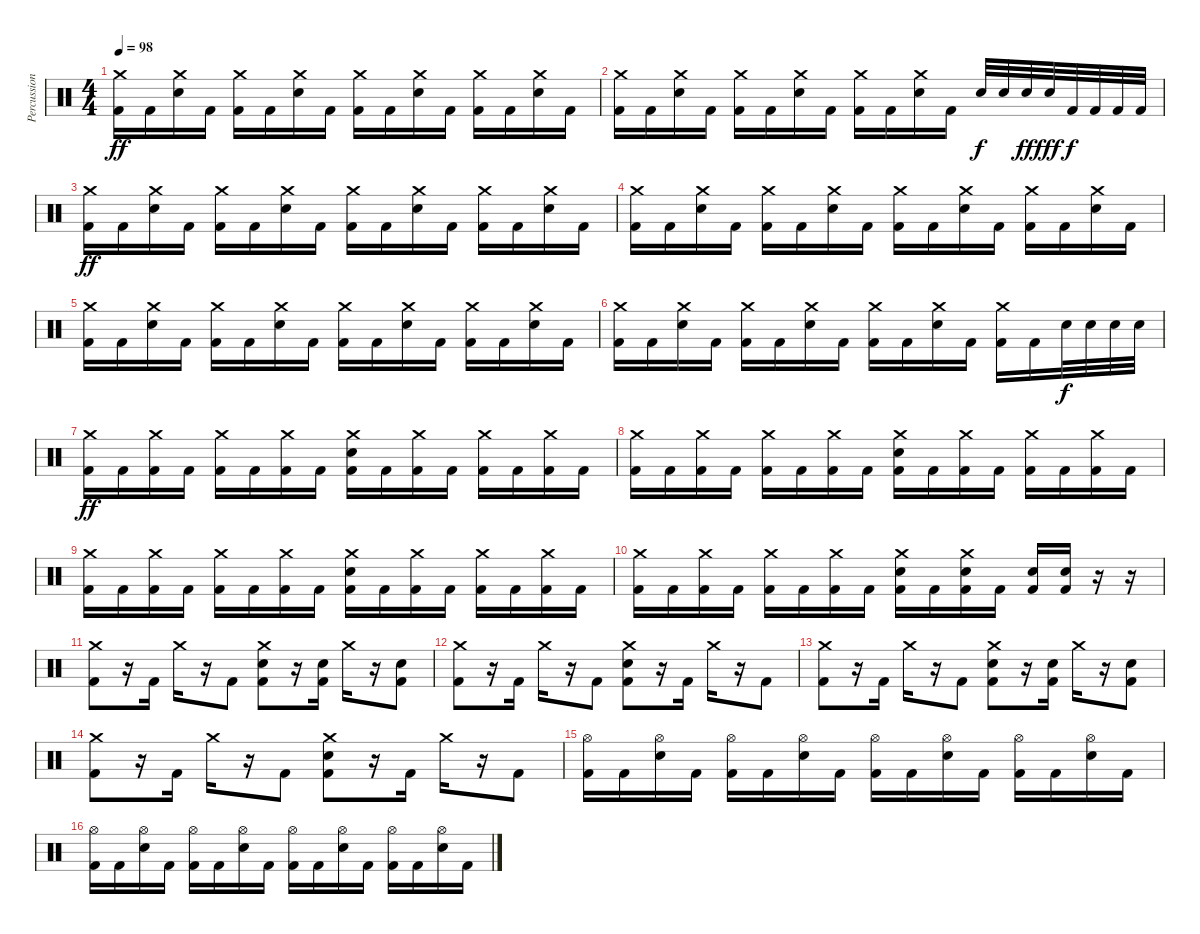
\track ("Percussion" "Percussion") {instrument percussion}
\staff {score}
\articulation defaults
\ts (4 4)
\tempo 98
\clef neutral
\ks c
("Crash medium (hit)" "Kick (hit) 2").16{dy ff} "Kick (hit) 2".16 ("Crash medium (hit)" "Electric Snare (hit)").16 "Kick (hit) 2".16 ("Crash medium (hit)" "Kick (hit) 2").16 "Kick (hit) 2".16 ("Crash medium (hit)" "Electric Snare (hit)").16 "Kick (hit) 2".16 ("Crash medium (hit)" "Kick (hit) 2").16 "Kick (hit) 2".16 ("Crash medium (hit)" "Electric Snare (hit)").16 "Kick (hit) 2".16 ("Crash medium (hit)" "Kick (hit) 2").16 "Kick (hit) 2".16 ("Crash medium (hit)" "Electric Snare (hit)").16 "Kick (hit) 2".16 |
("Crash medium (hit)" "Kick (hit) 2").16 "Kick (hit) 2".16 ("Crash medium (hit)" "Electric Snare (hit)").16 "Kick (hit) 2".16 ("Crash medium (hit)" "Kick (hit) 2").16 "Kick (hit) 2".16 ("Crash medium (hit)" "Electric Snare (hit)").16 "Kick (hit) 2".16 ("Crash medium (hit)" "Kick (hit) 2").16 "Kick (hit) 2".16 ("Crash medium (hit)" "Electric Snare (hit)").16 "Kick (hit) 2".16 "Electric Snare (hit)".32{dy f} "Electric Snare (hit)".32 "Electric Snare (hit)".32{dy ff} "Electric Snare (hit)".32{dy fff} "Kick (hit) 2".32{dy f} "Kick (hit) 2".32 "Kick (hit) 2".32 "Kick (hit) 2".32 |
("Crash medium (hit)" "Kick (hit) 2").16{dy ff} "Kick (hit) 2".16 ("Crash medium (hit)" "Electric Snare (hit)").16 "Kick (hit) 2".16 ("Crash medium (hit)" "Kick (hit) 2").16 "Kick (hit) 2".16 ("Crash medium (hit)" "Electric Snare (hit)").16 "Kick (hit) 2".16 ("Crash medium (hit)" "Kick (hit) 2").16 "Kick (hit) 2".16 ("Crash medium (hit)" "Electric Snare (hit)").16 "Kick (hit) 2".16 ("Crash medium (hit)" "Kick (hit) 2").16 "Kick (hit) 2".16 ("Crash medium (hit)" "Electric Snare (hit)").16 "Kick (hit) 2".16 |
("Crash medium (hit)" "Kick (hit) 2").16 "Kick (hit) 2".16 ("Crash medium (hit)" "Electric Snare (hit)").16 "Kick (hit) 2".16 ("Crash medium (hit)" "Kick (hit) 2").16 "Kick (hit) 2".16 ("Crash medium (hit)" "Electric Snare (hit)").16 "Kick (hit) 2".16 ("Crash medium (hit)" "Kick (hit) 2").16 "Kick (hit) 2".16 ("Crash medium (hit)" "Electric Snare (hit)").16 "Kick (hit) 2".16 ("Crash medium (hit)" "Kick (hit) 2").16 "Kick (hit) 2".16 ("Crash medium (hit)" "Electric Snare (hit)").16 "Kick (hit) 2".16 |
("Crash medium (hit)" "Kick (hit) 2").16 "Kick (hit) 2".16 ("Crash medium (hit)" "Electric Snare (hit)").16 "Kick (hit) 2".16 ("Crash medium (hit)" "Kick (hit) 2").16 "Kick (hit) 2".16 ("Crash medium (hit)" "Electric Snare (hit)").16 "Kick (hit) 2".16 ("Crash medium (hit)" "Kick (hit) 2").16 "Kick (hit) 2".16 ("Crash medium (hit)" "Electric Snare (hit)").16 "Kick (hit) 2".16 ("Crash medium (hit)" "Kick (hit) 2").16 "Kick (hit) 2".16 ("Crash medium (hit)" "Electric Snare (hit)").16 "Kick (hit) 2".16 |
("Crash medium (hit)" "Kick (hit) 2").16 "Kick (hit) 2".16 ("Crash medium (hit)" "Electric Snare (hit)").16 "Kick (hit) 2".16 ("Crash medium (hit)" "Kick (hit) 2").16 "Kick (hit) 2".16 ("Crash medium (hit)" "Electric Snare (hit)").16 "Kick (hit) 2".16 ("Crash medium (hit)" "Kick (hit) 2").16 "Kick (hit) 2".16 ("Crash medium (hit)" "Electric Snare (hit)").16 "Kick (hit) 2".16 ("Crash medium (hit)" "Kick (hit) 2").16 "Kick (hit) 2".16 "Electric Snare (hit)".32{dy f} "Electric Snare (hit)".32 "Electric Snare (hit)".32 "Electric Snare (hit)".32 |
("Crash medium (hit)" "Kick (hit) 2").16{dy ff} "Kick (hit) 2".16 ("Crash medium (hit)" "Kick (hit) 2").16 "Kick (hit) 2".16 ("Crash medium (hit)" "Kick (hit) 2").16 "Kick (hit) 2".16 ("Crash medium (hit)" "Kick (hit) 2").16 "Kick (hit) 2".16 ("Crash medium (hit)" "Electric Snare (hit)" "Kick (hit) 2").16 "Kick (hit) 2".16 ("Crash medium (hit)" "Kick (hit) 2").16 "Kick (hit) 2".16 ("Crash medium (hit)" "Kick (hit) 2").16 "Kick (hit) 2".16 ("Crash medium (hit)" "Kick (hit) 2").16 "Kick (hit) 2".16 |
("Crash medium (hit)" "Kick (hit) 2").16 "Kick (hit) 2".16 ("Crash medium (hit)" "Kick (hit) 2").16 "Kick (hit) 2".16 ("Crash medium (hit)" "Kick (hit) 2").16 "Kick (hit) 2".16 ("Crash medium (hit)" "Kick (hit) 2").16 "Kick (hit) 2".16 ("Crash medium (hit)" "Electric Snare (hit)" "Kick (hit) 2").16 "Kick (hit) 2".16 ("Crash medium (hit)" "Kick (hit) 2").16 "Kick (hit) 2".16 ("Crash medium (hit)" "Kick (hit) 2").16 "Kick (hit) 2".16 ("Crash medium (hit)" "Kick (hit) 2").16 "Kick (hit) 2".16 |
("Crash medium (hit)" "Kick (hit) 2").16 "Kick (hit) 2".16 ("Crash medium (hit)" "Kick (hit) 2").16 "Kick (hit) 2".16 ("Crash medium (hit)" "Kick (hit) 2").16 "Kick (hit) 2".16 ("Crash medium (hit)" "Kick (hit) 2").16 "Kick (hit) 2".16 ("Crash medium (hit)" "Electric Snare (hit)" "Kick (hit) 2").16 "Kick (hit) 2".16 ("Crash medium (hit)" "Kick (hit) 2").16 "Kick (hit) 2".16 ("Crash medium (hit)" "Kick (hit) 2").16 "Kick (hit) 2".16 ("Crash medium (hit)" "Kick (hit) 2").16 "Kick (hit) 2".16 |
("Crash medium (hit)" "Kick (hit) 2").16 "Kick (hit) 2".16 ("Crash medium (hit)" "Kick (hit) 2").16 "Kick (hit) 2".16 ("Crash medium (hit)" "Kick (hit) 2").16 "Kick (hit) 2".16 ("Crash medium (hit)" "Kick (hit) 2").16 "Kick (hit) 2".16 ("Crash medium (hit)" "Electric Snare (hit)" "Kick (hit) 2").16 "Kick (hit) 2".16 ("Crash medium (hit)" "Electric Snare (hit)" "Kick (hit) 2").16 "Kick (hit) 2".16 ("Electric Snare (hit)" "Kick (hit) 2").16 ("Electric Snare (hit)" "Kick (hit) 2").16 r.16 r.16 |
("Crash medium (hit)" "Kick (hit) 2").8 r.16 "Kick (hit) 2".16 "Crash medium (hit)".16 r.16 "Kick (hit) 2".8 ("Crash medium (hit)" "Electric Snare (hit)" "Kick (hit) 2").8 r.16 ("Electric Snare (hit)" "Kick (hit) 2").16 "Crash medium (hit)".16 r.16 ("Electric Snare (hit)" "Kick (hit) 2").8 |
("Crash medium (hit)" "Kick (hit) 2").8 r.16 "Kick (hit) 2".16 "Crash medium (hit)".16 r.16 "Kick (hit) 2".8 ("Crash medium (hit)" "Electric Snare (hit)" "Kick (hit) 2").8 r.16 "Kick (hit) 2".16 "Crash medium (hit)".16 r.16 "Kick (hit) 2".8 |
("Crash medium (hit)" "Kick (hit) 2").8 r.16 "Kick (hit) 2".16 "Crash medium (hit)".16 r.16 "Kick (hit) 2".8 ("Crash medium (hit)" "Electric Snare (hit)" "Kick (hit) 2").8 r.16 ("Electric Snare (hit)" "Kick (hit) 2").16 "Crash medium (hit)".16 r.16 ("Electric Snare (hit)" "Kick (hit) 2").8 |
("Crash medium (hit)" "Kick (hit) 2").8 r.16 "Kick (hit) 2".16 "Crash medium (hit)".16 r.16 "Kick (hit) 2".8 ("Crash medium (hit)" "Electric Snare (hit)" "Kick (hit) 2").8 r.16 "Kick (hit) 2".16 "Crash medium (hit)".16 r.16 "Kick (hit) 2".8 |
("Hi-Hat (open)" "Kick (hit) 2").16 "Kick (hit) 2".16 ("Hi-Hat (open)" "Electric Snare (hit)").16 "Kick (hit) 2".16 ("Hi-Hat (open)" "Kick (hit) 2").16 "Kick (hit) 2".16 ("Hi-Hat (open)" "Electric Snare (hit)").16 "Kick (hit) 2".16 ("Hi-Hat (open)" "Kick (hit) 2").16 "Kick (hit) 2".16 ("Hi-Hat (open)" "Electric Snare (hit)").16 "Kick (hit) 2".16 ("Hi-Hat (open)" "Kick (hit) 2").16 "Kick (hit) 2".16 ("Hi-Hat (open)" "Electric Snare (hit)").16 "Kick (hit) 2".16 |
("Hi-Hat (open)" "Kick (hit) 2").16 "Kick (hit) 2".16 ("Hi-Hat (open)" "Electric Snare (hit)").16 "Kick (hit) 2".16 ("Hi-Hat (open)" "Kick (hit) 2").16 "Kick (hit) 2".16 ("Hi-Hat (open)" "Electric Snare (hit)").16 "Kick (hit) 2".16 ("Hi-Hat (open)" "Kick (hit) 2").16 "Kick (hit) 2".16 ("Hi-Hat (open)" "Electric Snare (hit)").16 "Kick (hit) 2".16 ("Hi-Hat (open)" "Kick (hit) 2").16 "Kick (hit) 2".16 ("Hi-Hat (open)" "Electric Snare (hit)").16 "Kick (hit) 2".16
